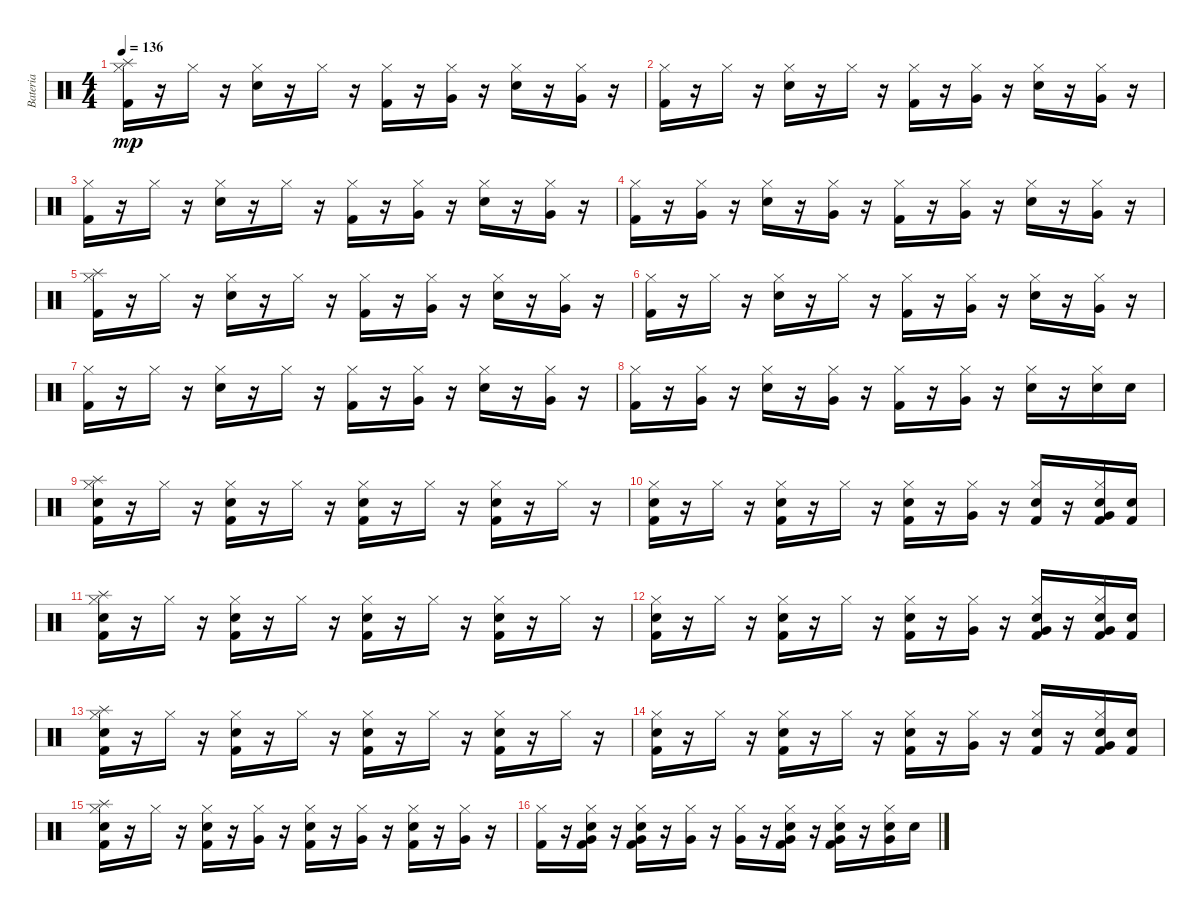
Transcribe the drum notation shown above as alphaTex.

\track ("Bateria" "Bateria") {instrument percussion}
\staff {score}
\articulation defaults
\ts (4 4)
\tempo 136
\clef neutral
\ks c
("Kick (hit) 2" "Hi-Hat (closed)" "Splash (hit)").16{dy mp} r.16 "Hi-Hat (closed)".16 r.16 ("Snare (hit) 2" "Hi-Hat (closed)").16 r.16 "Hi-Hat (closed)".16 r.16 ("Kick (hit) 2" "Hi-Hat (closed)").16 r.16 ("Hi-Hat (closed)" "Very Low Tom (hit)").16 r.16 ("Snare (hit) 2" "Hi-Hat (closed)").16 r.16 ("Hi-Hat (closed)" "Very Low Tom (hit)").16 r.16 |
("Kick (hit) 2" "Hi-Hat (closed)").16 r.16 "Hi-Hat (closed)".16 r.16 ("Snare (hit) 2" "Hi-Hat (closed)").16 r.16 "Hi-Hat (closed)".16 r.16 ("Kick (hit) 2" "Hi-Hat (closed)").16 r.16 ("Hi-Hat (closed)" "Very Low Tom (hit)").16 r.16 ("Snare (hit) 2" "Hi-Hat (closed)").16 r.16 ("Hi-Hat (closed)" "Very Low Tom (hit)").16 r.16 |
("Kick (hit) 2" "Hi-Hat (closed)").16 r.16 "Hi-Hat (closed)".16 r.16 ("Snare (hit) 2" "Hi-Hat (closed)").16 r.16 "Hi-Hat (closed)".16 r.16 ("Kick (hit) 2" "Hi-Hat (closed)").16 r.16 ("Hi-Hat (closed)" "Very Low Tom (hit)").16 r.16 ("Snare (hit) 2" "Hi-Hat (closed)").16 r.16 ("Hi-Hat (closed)" "Very Low Tom (hit)").16 r.16 |
("Kick (hit) 2" "Hi-Hat (closed)").16 r.16 ("Hi-Hat (closed)" "Very Low Tom (hit)").16 r.16 ("Snare (hit) 2" "Hi-Hat (closed)").16 r.16 ("Hi-Hat (closed)" "Very Low Tom (hit)").16 r.16 ("Kick (hit) 2" "Hi-Hat (closed)").16 r.16 ("Hi-Hat (closed)" "Very Low Tom (hit)").16 r.16 ("Snare (hit) 2" "Hi-Hat (closed)").16 r.16 ("Hi-Hat (closed)" "Very Low Tom (hit)").16 r.16 |
("Kick (hit) 2" "Hi-Hat (closed)" "Splash (hit)").16 r.16 "Hi-Hat (closed)".16 r.16 ("Snare (hit) 2" "Hi-Hat (closed)").16 r.16 "Hi-Hat (closed)".16 r.16 ("Kick (hit) 2" "Hi-Hat (closed)").16 r.16 ("Hi-Hat (closed)" "Very Low Tom (hit)").16 r.16 ("Snare (hit) 2" "Hi-Hat (closed)").16 r.16 ("Hi-Hat (closed)" "Very Low Tom (hit)").16 r.16 |
("Kick (hit) 2" "Hi-Hat (closed)").16 r.16 "Hi-Hat (closed)".16 r.16 ("Snare (hit) 2" "Hi-Hat (closed)").16 r.16 "Hi-Hat (closed)".16 r.16 ("Kick (hit) 2" "Hi-Hat (closed)").16 r.16 ("Hi-Hat (closed)" "Very Low Tom (hit)").16 r.16 ("Snare (hit) 2" "Hi-Hat (closed)").16 r.16 ("Hi-Hat (closed)" "Very Low Tom (hit)").16 r.16 |
("Kick (hit) 2" "Hi-Hat (closed)").16 r.16 "Hi-Hat (closed)".16 r.16 ("Snare (hit) 2" "Hi-Hat (closed)").16 r.16 "Hi-Hat (closed)".16 r.16 ("Kick (hit) 2" "Hi-Hat (closed)").16 r.16 ("Hi-Hat (closed)" "Very Low Tom (hit)").16 r.16 ("Snare (hit) 2" "Hi-Hat (closed)").16 r.16 ("Hi-Hat (closed)" "Very Low Tom (hit)").16 r.16 |
("Kick (hit) 2" "Hi-Hat (closed)").16 r.16 ("Hi-Hat (closed)" "Very Low Tom (hit)").16 r.16 ("Snare (hit) 2" "Hi-Hat (closed)").16 r.16 ("Hi-Hat (closed)" "Very Low Tom (hit)").16 r.16 ("Kick (hit) 2" "Hi-Hat (closed)").16 r.16 ("Hi-Hat (closed)" "Very Low Tom (hit)").16 r.16 ("Snare (hit) 2" "Hi-Hat (closed)").16 r.16 ("Snare (hit) 2" "Hi-Hat (closed)").16 "Snare (hit) 2".16 |
("Hi-Hat (closed)" "Splash (hit)" "Kick (hit) 2" "Snare (hit) 2").16 r.16 "Hi-Hat (closed)".16 r.16 ("Hi-Hat (closed)" "Kick (hit) 2" "Snare (hit) 2").16 r.16 "Hi-Hat (closed)".16 r.16 ("Hi-Hat (closed)" "Kick (hit) 2" "Snare (hit) 2").16 r.16 "Hi-Hat (closed)".16 r.16 ("Hi-Hat (closed)" "Kick (hit) 2" "Snare (hit) 2").16 r.16 "Hi-Hat (closed)".16 r.16 |
("Hi-Hat (closed)" "Kick (hit) 2" "Snare (hit) 2").16 r.16 "Hi-Hat (closed)".16 r.16 ("Hi-Hat (closed)" "Kick (hit) 2" "Snare (hit) 2").16 r.16 "Hi-Hat (closed)".16 r.16 ("Hi-Hat (closed)" "Kick (hit) 2" "Snare (hit) 2").16 r.16 ("Hi-Hat (closed)" "Very Low Tom (hit)").16 r.16 ("Hi-Hat (closed)" "Kick (hit) 2" "Snare (hit) 2").16 r.16 ("Hi-Hat (closed)" "Snare (hit) 2" "Kick (hit) 2" "Very Low Tom (hit)").16 ("Snare (hit) 2" "Kick (hit) 2").16 |
("Hi-Hat (closed)" "Snare (hit) 2" "Kick (hit) 2" "Splash (hit)").16 r.16 "Hi-Hat (closed)".16 r.16 ("Hi-Hat (closed)" "Kick (hit) 2" "Snare (hit) 2").16 r.16 "Hi-Hat (closed)".16 r.16 ("Kick (hit) 2" "Snare (hit) 2" "Hi-Hat (closed)").16 r.16 "Hi-Hat (closed)".16 r.16 ("Hi-Hat (closed)" "Kick (hit) 2" "Snare (hit) 2").16 r.16 "Hi-Hat (closed)".16 r.16 |
("Hi-Hat (closed)" "Kick (hit) 2" "Snare (hit) 2").16 r.16 "Hi-Hat (closed)".16 r.16 ("Hi-Hat (closed)" "Kick (hit) 2" "Snare (hit) 2").16 r.16 "Hi-Hat (closed)".16 r.16 ("Hi-Hat (closed)" "Kick (hit) 2" "Snare (hit) 2").16 r.16 ("Hi-Hat (closed)" "Very Low Tom (hit)").16 r.16 ("Hi-Hat (closed)" "Kick (hit) 2" "Snare (hit) 2" "Very Low Tom (hit)").16 r.16 ("Hi-Hat (closed)" "Snare (hit) 2" "Kick (hit) 2" "Very Low Tom (hit)").16 ("Snare (hit) 2" "Kick (hit) 2").16 |
("Hi-Hat (closed)" "Splash (hit)" "Kick (hit) 2" "Snare (hit) 2").16 r.16 "Hi-Hat (closed)".16 r.16 ("Kick (hit) 2" "Snare (hit) 2" "Hi-Hat (closed)").16 r.16 "Hi-Hat (closed)".16 r.16 ("Hi-Hat (closed)" "Kick (hit) 2" "Snare (hit) 2").16 r.16 "Hi-Hat (closed)".16 r.16 ("Hi-Hat (closed)" "Kick (hit) 2" "Snare (hit) 2").16 r.16 "Hi-Hat (closed)".16 r.16 |
("Hi-Hat (closed)" "Kick (hit) 2" "Snare (hit) 2").16 r.16 "Hi-Hat (closed)".16 r.16 ("Hi-Hat (closed)" "Kick (hit) 2" "Snare (hit) 2").16 r.16 "Hi-Hat (closed)".16 r.16 ("Hi-Hat (closed)" "Kick (hit) 2" "Snare (hit) 2").16 r.16 ("Hi-Hat (closed)" "Very Low Tom (hit)").16 r.16 ("Hi-Hat (closed)" "Kick (hit) 2" "Snare (hit) 2").16 r.16 ("Hi-Hat (closed)" "Snare (hit) 2" "Kick (hit) 2" "Very Low Tom (hit)").16 ("Snare (hit) 2" "Kick (hit) 2").16 |
("Hi-Hat (closed)" "Snare (hit) 2" "Kick (hit) 2" "Splash (hit)").16 r.16 "Hi-Hat (closed)".16 r.16 ("Kick (hit) 2" "Snare (hit) 2" "Hi-Hat (closed)").16 r.16 ("Hi-Hat (closed)" "Very Low Tom (hit)").16 r.16 ("Hi-Hat (closed)" "Kick (hit) 2" "Snare (hit) 2").16 r.16 ("Hi-Hat (closed)" "Very Low Tom (hit)").16 r.16 ("Hi-Hat (closed)" "Kick (hit) 2" "Snare (hit) 2").16 r.16 ("Hi-Hat (closed)" "Very Low Tom (hit)").16 r.16 |
("Hi-Hat (closed)" "Kick (hit) 2").16 r.16 ("Hi-Hat (closed)" "Very Low Tom (hit)" "Snare (hit) 2" "Kick (hit) 2").16 r.16 ("Hi-Hat (closed)" "Kick (hit) 2" "Very Low Tom (hit)" "Snare (hit) 2").16 r.16 ("Hi-Hat (closed)" "Very Low Tom (hit)").16 r.16 ("Hi-Hat (closed)" "Very Low Tom (hit)").16 r.16 ("Hi-Hat (closed)" "Snare (hit) 2" "Kick (hit) 2" "Very Low Tom (hit)").16 r.16 ("Hi-Hat (closed)" "Kick (hit) 2" "Snare (hit) 2" "Very Low Tom (hit)").16 r.16 ("Hi-Hat (closed)" "Snare (hit) 2" "Very Low Tom (hit)").16 "Snare (hit) 2".16
